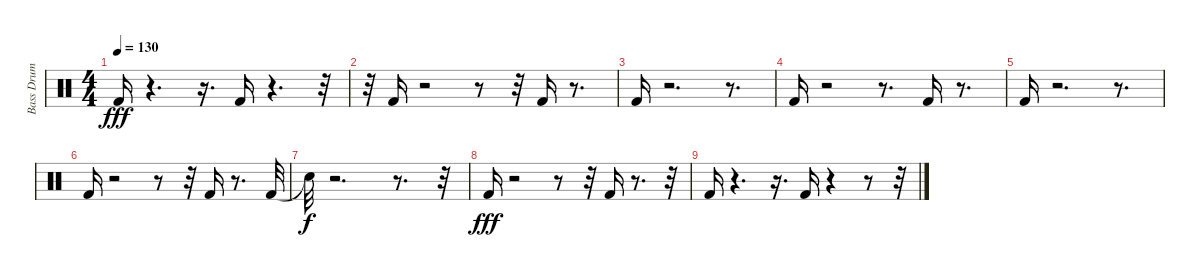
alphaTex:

\track ("Bass Drum" "Bass Drum") {instrument percussion}
\staff {score}
\articulation defaults
\ts (4 4)
\tempo 130
\clef neutral
\ks c "Kick (hit) 2".16{dy fff}
r.4{d} r.16{d} "Kick (hit) 2".16 r.4{d} r.32 |
r.32 "Kick (hit) 2".16 r.2 r.8 r.32 "Kick (hit) 2".16 r.8{d} |
"Kick (hit) 2".16 r.2{d} r.8{d} |
"Kick (hit) 2".16 r.2 r.8{d} "Kick (hit) 2".16 r.8{d} |
"Kick (hit) 2".16 r.2{d} r.8{d} |
"Kick (hit) 2".16 r.2 r.8 r.32 "Kick (hit) 2".16 r.8{d} "Kick (hit) 2".32 |
"Snare (hit)"{t}.32{dy f} r.2{d} r.8{d} r.32 |
"Kick (hit) 2".16{dy fff} r.2 r.8 r.32 "Kick (hit) 2".16 r.8{d} r.32 |
"Kick (hit) 2".16 r.4{d} r.16{d} "Kick (hit) 2".16 r.4 r.8 r.32
